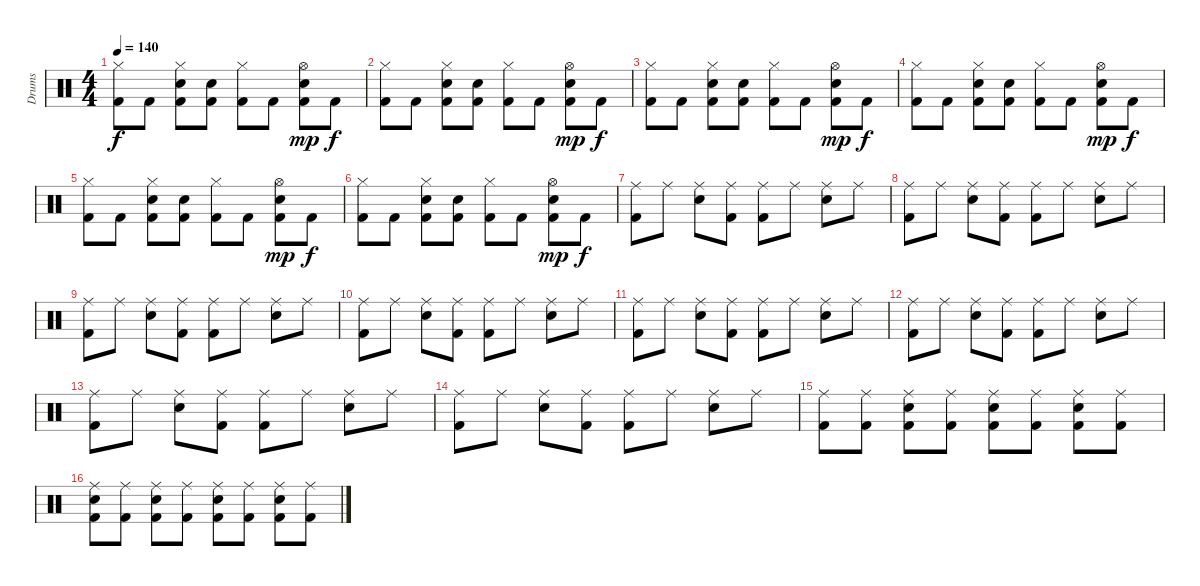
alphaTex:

\track ("Drums" "Drums") {instrument percussion}
\staff {score}
\articulation defaults
\ts (4 4)
\tempo 140
\clef neutral
\ks c
("Hi-Hat (closed)" "Kick (hit) 2").8{dy f} "Kick (hit) 2".8 ("Hi-Hat (closed)" "Electric Snare (hit)" "Kick (hit) 2").8 ("Electric Snare (hit)" "Kick (hit) 2").8 ("Hi-Hat (closed)" "Kick (hit) 2").8 "Kick (hit) 2".8 ("Hi-Hat (open)" "Electric Snare (hit)" "Kick (hit) 2").8{dy mp} "Kick (hit) 2".8{dy f} |
("Hi-Hat (closed)" "Kick (hit) 2").8 "Kick (hit) 2".8 ("Hi-Hat (closed)" "Electric Snare (hit)" "Kick (hit) 2").8 ("Electric Snare (hit)" "Kick (hit) 2").8 ("Hi-Hat (closed)" "Kick (hit) 2").8 "Kick (hit) 2".8 ("Hi-Hat (open)" "Electric Snare (hit)" "Kick (hit) 2").8{dy mp} "Kick (hit) 2".8{dy f} |
("Hi-Hat (closed)" "Kick (hit) 2").8 "Kick (hit) 2".8 ("Hi-Hat (closed)" "Electric Snare (hit)" "Kick (hit) 2").8 ("Electric Snare (hit)" "Kick (hit) 2").8 ("Hi-Hat (closed)" "Kick (hit) 2").8 "Kick (hit) 2".8 ("Hi-Hat (open)" "Electric Snare (hit)" "Kick (hit) 2").8{dy mp} "Kick (hit) 2".8{dy f} |
("Hi-Hat (closed)" "Kick (hit) 2").8 "Kick (hit) 2".8 ("Hi-Hat (closed)" "Electric Snare (hit)" "Kick (hit) 2").8 ("Electric Snare (hit)" "Kick (hit) 2").8 ("Hi-Hat (closed)" "Kick (hit) 2").8 "Kick (hit) 2".8 ("Hi-Hat (open)" "Electric Snare (hit)" "Kick (hit) 2").8{dy mp} "Kick (hit) 2".8{dy f} |
("Hi-Hat (closed)" "Kick (hit) 2").8 "Kick (hit) 2".8 ("Hi-Hat (closed)" "Electric Snare (hit)" "Kick (hit) 2").8 ("Electric Snare (hit)" "Kick (hit) 2").8 ("Hi-Hat (closed)" "Kick (hit) 2").8 "Kick (hit) 2".8 ("Hi-Hat (open)" "Electric Snare (hit)" "Kick (hit) 2").8{dy mp} "Kick (hit) 2".8{dy f} |
("Hi-Hat (closed)" "Kick (hit) 2").8 "Kick (hit) 2".8 ("Hi-Hat (closed)" "Electric Snare (hit)" "Kick (hit) 2").8 ("Electric Snare (hit)" "Kick (hit) 2").8 ("Hi-Hat (closed)" "Kick (hit) 2").8 "Kick (hit) 2".8 ("Hi-Hat (open)" "Electric Snare (hit)" "Kick (hit) 2").8{dy mp} "Kick (hit) 2".8{dy f} |
("Ride (middle)" "Kick (hit) 2").8 "Ride (middle)".8 ("Ride (middle)" "Electric Snare (hit)").8 ("Ride (middle)" "Kick (hit) 2").8 ("Ride (middle)" "Kick (hit) 2").8 "Ride (middle)".8 ("Ride (middle)" "Electric Snare (hit)").8 "Ride (middle)".8 |
("Ride (middle)" "Kick (hit) 2").8 "Ride (middle)".8 ("Ride (middle)" "Electric Snare (hit)").8 ("Ride (middle)" "Kick (hit) 2").8 ("Ride (middle)" "Kick (hit) 2").8 "Ride (middle)".8 ("Ride (middle)" "Electric Snare (hit)").8 "Ride (middle)".8 |
("Ride (middle)" "Kick (hit) 2").8 "Ride (middle)".8 ("Ride (middle)" "Electric Snare (hit)").8 ("Ride (middle)" "Kick (hit) 2").8 ("Ride (middle)" "Kick (hit) 2").8 "Ride (middle)".8 ("Ride (middle)" "Electric Snare (hit)").8 "Ride (middle)".8 |
("Ride (middle)" "Kick (hit) 2").8 "Ride (middle)".8 ("Ride (middle)" "Electric Snare (hit)").8 ("Ride (middle)" "Kick (hit) 2").8 ("Ride (middle)" "Kick (hit) 2").8 "Ride (middle)".8 ("Ride (middle)" "Electric Snare (hit)").8 "Ride (middle)".8 |
("Ride (middle)" "Kick (hit) 2").8 "Ride (middle)".8 ("Ride (middle)" "Electric Snare (hit)").8 ("Ride (middle)" "Kick (hit) 2").8 ("Ride (middle)" "Kick (hit) 2").8 "Ride (middle)".8 ("Ride (middle)" "Electric Snare (hit)").8 "Ride (middle)".8 |
("Ride (middle)" "Kick (hit) 2").8 "Ride (middle)".8 ("Ride (middle)" "Electric Snare (hit)").8 ("Ride (middle)" "Kick (hit) 2").8 ("Ride (middle)" "Kick (hit) 2").8 "Ride (middle)".8 ("Ride (middle)" "Electric Snare (hit)").8 "Ride (middle)".8 |
("Ride (middle)" "Kick (hit) 2").8 "Ride (middle)".8 ("Ride (middle)" "Electric Snare (hit)").8 ("Ride (middle)" "Kick (hit) 2").8 ("Ride (middle)" "Kick (hit) 2").8 "Ride (middle)".8 ("Ride (middle)" "Electric Snare (hit)").8 "Ride (middle)".8 |
("Ride (middle)" "Kick (hit) 2").8 "Ride (middle)".8 ("Ride (middle)" "Electric Snare (hit)").8 ("Ride (middle)" "Kick (hit) 2").8 ("Ride (middle)" "Kick (hit) 2").8 "Ride (middle)".8 ("Ride (middle)" "Electric Snare (hit)").8 "Ride (middle)".8 |
("Ride (middle)" "Kick (hit) 2").8 ("Ride (middle)" "Kick (hit) 2").8 ("Ride (middle)" "Electric Snare (hit)" "Kick (hit) 2").8 ("Ride (middle)" "Kick (hit) 2").8 ("Ride (middle)" "Electric Snare (hit)" "Kick (hit) 2").8 ("Ride (middle)" "Kick (hit) 2").8 ("Ride (middle)" "Electric Snare (hit)" "Kick (hit) 2").8 ("Ride (middle)" "Kick (hit) 2").8 |
("Ride (middle)" "Electric Snare (hit)" "Kick (hit) 2").8 ("Ride (middle)" "Kick (hit) 2").8 ("Ride (middle)" "Electric Snare (hit)" "Kick (hit) 2").8 ("Ride (middle)" "Kick (hit) 2").8 ("Ride (middle)" "Electric Snare (hit)" "Kick (hit) 2").8 ("Ride (middle)" "Kick (hit) 2").8 ("Ride (middle)" "Electric Snare (hit)" "Kick (hit) 2").8 ("Ride (middle)" "Kick (hit) 2").8
